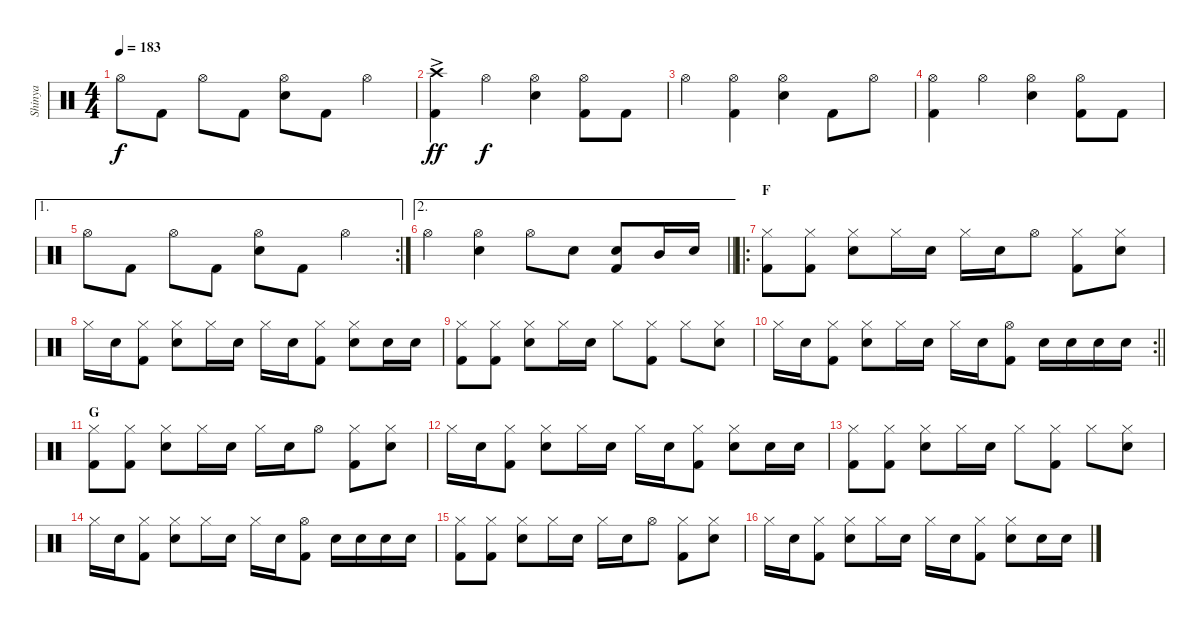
\track ("Shinya" "Shinya") {instrument percussion}
\staff {score}
\articulation defaults
\ts (4 4)
\tempo 183
\clef neutral
\ks c "Hi-Hat (open)".8{dy f} "Kick (hit) 2".8 "Hi-Hat (open)".8 "Kick (hit) 2".8
("Hi-Hat (open)" "Snare (hit) 2").8 "Kick (hit) 2".8 "Hi-Hat (open)".4 |
("Crash high (hit)"{ac} "Kick (hit) 2").4{dy ff} "Hi-Hat (open)".4{dy f} ("Hi-Hat (open)" "Snare (hit) 2").4 ("Hi-Hat (open)" "Kick (hit) 2").8 "Kick (hit) 2".8 |
"Hi-Hat (open)".4 ("Hi-Hat (open)" "Kick (hit) 2").4 ("Hi-Hat (open)" "Snare (hit) 2").4 "Kick (hit) 2".8 "Hi-Hat (open)".8 |
("Hi-Hat (open)" "Kick (hit) 2").4 "Hi-Hat (open)".4 ("Hi-Hat (open)" "Snare (hit) 2").4 ("Hi-Hat (open)" "Kick (hit) 2").8 "Kick (hit) 2".8 |
\ae 1
\rc 2 "Hi-Hat (open)".8 "Kick (hit) 2".8 "Hi-Hat (open)".8 "Kick (hit) 2".8
("Hi-Hat (open)" "Snare (hit) 2").8 "Kick (hit) 2".8 "Hi-Hat (open)".4 |
\ae 2
\barLineRight lightlight "Hi-Hat (open)".4
("Hi-Hat (open)" "Snare (hit) 2").4 "Hi-Hat (open)".8 "Snare (hit) 2".8 ("Snare (hit) 2" "Kick (hit) 2").8 "Mid Tom (hit)".16 "Snare (hit) 2".16 |
\ro
\section ("" "F")
("Hi-Hat (closed)" "Kick (hit) 2").8 ("Hi-Hat (closed)" "Kick (hit) 2").8 ("Hi-Hat (closed)" "Snare (hit) 2").8 "Hi-Hat (closed)".16 "Snare (hit) 2".16 "Hi-Hat (closed)".16 "Snare (hit) 2".16 "Hi-Hat (open)".8 ("Hi-Hat (closed)" "Kick (hit) 2").8 ("Hi-Hat (closed)" "Snare (hit) 2").8 |
"Hi-Hat (closed)".16 "Snare (hit) 2".16 ("Hi-Hat (closed)" "Kick (hit) 2").8 ("Hi-Hat (closed)" "Snare (hit) 2").8 "Hi-Hat (closed)".16 "Snare (hit) 2".16 "Hi-Hat (closed)".16 "Snare (hit) 2".16 ("Hi-Hat (closed)" "Kick (hit) 2").8 ("Hi-Hat (closed)" "Snare (hit) 2").8 "Snare (hit) 2".16 "Snare (hit) 2".16 |
("Hi-Hat (closed)" "Kick (hit) 2").8 ("Hi-Hat (closed)" "Kick (hit) 2").8 ("Hi-Hat (closed)" "Snare (hit) 2").8 "Hi-Hat (closed)".16 "Snare (hit) 2".16 "Hi-Hat (closed)".8 ("Hi-Hat (closed)" "Kick (hit) 2").8 "Hi-Hat (closed)".8 ("Hi-Hat (closed)" "Snare (hit) 2").8 |
\rc 2
\barLineRight lightlight "Hi-Hat (closed)".16 "Snare (hit) 2".16
("Hi-Hat (closed)" "Kick (hit) 2").8 ("Hi-Hat (closed)" "Snare (hit) 2").8 "Hi-Hat (closed)".16 "Snare (hit) 2".16 "Hi-Hat (closed)".16 "Snare (hit) 2".16 ("Hi-Hat (open)" "Kick (hit) 2").8 "Snare (hit) 2".16 "Snare (hit) 2".16 "Snare (hit) 2".16 "Snare (hit) 2".16 |
\section ("" "G")
("Hi-Hat (closed)" "Kick (hit) 2").8 ("Hi-Hat (closed)" "Kick (hit) 2").8 ("Hi-Hat (closed)" "Snare (hit) 2").8 "Hi-Hat (closed)".16 "Snare (hit) 2".16 "Hi-Hat (closed)".16 "Snare (hit) 2".16 "Hi-Hat (open)".8 ("Hi-Hat (closed)" "Kick (hit) 2").8 ("Hi-Hat (closed)" "Snare (hit) 2").8 |
"Hi-Hat (closed)".16 "Snare (hit) 2".16 ("Hi-Hat (closed)" "Kick (hit) 2").8 ("Hi-Hat (closed)" "Snare (hit) 2").8 "Hi-Hat (closed)".16 "Snare (hit) 2".16 "Hi-Hat (closed)".16 "Snare (hit) 2".16 ("Hi-Hat (closed)" "Kick (hit) 2").8 ("Hi-Hat (closed)" "Snare (hit) 2").8 "Snare (hit) 2".16 "Snare (hit) 2".16 |
("Hi-Hat (closed)" "Kick (hit) 2").8 ("Hi-Hat (closed)" "Kick (hit) 2").8 ("Hi-Hat (closed)" "Snare (hit) 2").8 "Hi-Hat (closed)".16 "Snare (hit) 2".16 "Hi-Hat (closed)".8 ("Hi-Hat (closed)" "Kick (hit) 2").8 "Hi-Hat (closed)".8 ("Hi-Hat (closed)" "Snare (hit) 2").8 |
"Hi-Hat (closed)".16 "Snare (hit) 2".16 ("Hi-Hat (closed)" "Kick (hit) 2").8 ("Hi-Hat (closed)" "Snare (hit) 2").8 "Hi-Hat (closed)".16 "Snare (hit) 2".16 "Hi-Hat (closed)".16 "Snare (hit) 2".16 ("Hi-Hat (open)" "Kick (hit) 2").8 "Snare (hit) 2".16 "Snare (hit) 2".16 "Snare (hit) 2".16 "Snare (hit) 2".16 |
("Hi-Hat (closed)" "Kick (hit) 2").8 ("Hi-Hat (closed)" "Kick (hit) 2").8 ("Hi-Hat (closed)" "Snare (hit) 2").8 "Hi-Hat (closed)".16 "Snare (hit) 2".16 "Hi-Hat (closed)".16 "Snare (hit) 2".16 "Hi-Hat (open)".8 ("Hi-Hat (closed)" "Kick (hit) 2").8 ("Hi-Hat (closed)" "Snare (hit) 2").8 |
"Hi-Hat (closed)".16 "Snare (hit) 2".16 ("Hi-Hat (closed)" "Kick (hit) 2").8 ("Hi-Hat (closed)" "Snare (hit) 2").8 "Hi-Hat (closed)".16 "Snare (hit) 2".16 "Hi-Hat (closed)".16 "Snare (hit) 2".16 ("Hi-Hat (closed)" "Kick (hit) 2").8 ("Hi-Hat (closed)" "Snare (hit) 2").8 "Snare (hit) 2".16 "Snare (hit) 2".16
